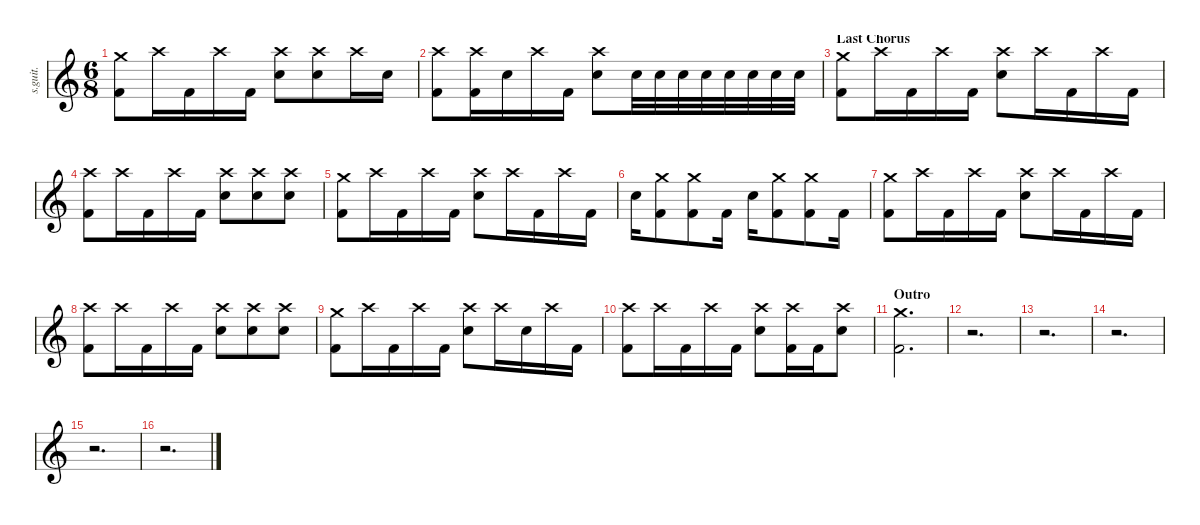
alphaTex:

\defaultSystemsLayout 4
\hideDynamics
\bracketExtendMode nobrackets
\track ("Shannon (Drums)" "s.guit.") {instrument percussion}
\staff {score}
\articulation defaults
\ts (6 8)
\tempo (94 hide)
\clef g2
\ks c
("Crash medium (hit)" "Kick (hit) 2").8{lyrics (0 "") lyrics (1 "") lyrics (2 "") lyrics (3 "") lyrics (4 "") dy f} "Crash high (hit)".16{lyrics (0 "") lyrics (1 "") lyrics (2 "") lyrics (3 "") lyrics (4 "")} "Kick (hit) 2".16{lyrics (0 "") lyrics (1 "") lyrics (2 "") lyrics (3 "") lyrics (4 "")} "Crash high (hit)".16{lyrics (0 "") lyrics (1 "") lyrics (2 "") lyrics (3 "") lyrics (4 "")} "Kick (hit) 2".16{lyrics (0 "") lyrics (1 "") lyrics (2 "") lyrics (3 "") lyrics (4 "")} ("Crash high (hit)" "Electric Snare (hit)").8{lyrics (0 "") lyrics (1 "") lyrics (2 "") lyrics (3 "") lyrics (4 "")} ("Crash high (hit)" "Electric Snare (hit)").8{lyrics (0 "") lyrics (1 "") lyrics (2 "") lyrics (3 "") lyrics (4 "")} "Crash high (hit)".16{lyrics (0 "") lyrics (1 "") lyrics (2 "") lyrics (3 "") lyrics (4 "")} "Electric Snare (hit)".16{lyrics (0 "") lyrics (1 "") lyrics (2 "") lyrics (3 "") lyrics (4 "")} |
("Crash high (hit)" "Kick (hit) 2").8{lyrics (0 "") lyrics (1 "") lyrics (2 "") lyrics (3 "") lyrics (4 "")} ("Crash high (hit)" "Kick (hit) 2").16{lyrics (0 "") lyrics (1 "") lyrics (2 "") lyrics (3 "") lyrics (4 "")} "Electric Snare (hit)".16{lyrics (0 "") lyrics (1 "") lyrics (2 "") lyrics (3 "") lyrics (4 "")} "Crash high (hit)".16{lyrics (0 "") lyrics (1 "") lyrics (2 "") lyrics (3 "") lyrics (4 "")} "Kick (hit) 2".16{lyrics (0 "") lyrics (1 "") lyrics (2 "") lyrics (3 "") lyrics (4 "")} ("Crash high (hit)" "Electric Snare (hit)").8{lyrics (0 "") lyrics (1 "") lyrics (2 "") lyrics (3 "") lyrics (4 "")} "Electric Snare (hit)".32{lyrics (0 "") lyrics (1 "") lyrics (2 "") lyrics (3 "") lyrics (4 "")} "Electric Snare (hit)".32{lyrics (0 "") lyrics (1 "") lyrics (2 "") lyrics (3 "") lyrics (4 "")} "Electric Snare (hit)".32{lyrics (0 "") lyrics (1 "") lyrics (2 "") lyrics (3 "") lyrics (4 "")} "Electric Snare (hit)".32{lyrics (0 "") lyrics (1 "") lyrics (2 "") lyrics (3 "") lyrics (4 "")} "Electric Snare (hit)".32{lyrics (0 "") lyrics (1 "") lyrics (2 "") lyrics (3 "") lyrics (4 "")} "Electric Snare (hit)".32{lyrics (0 "") lyrics (1 "") lyrics (2 "") lyrics (3 "") lyrics (4 "")} "Electric Snare (hit)".32{lyrics (0 "") lyrics (1 "") lyrics (2 "") lyrics (3 "") lyrics (4 "")} "Electric Snare (hit)".32{lyrics (0 "") lyrics (1 "") lyrics (2 "") lyrics (3 "") lyrics (4 "")} |
\section ("" "Last Chorus")
("Crash medium (hit)" "Kick (hit) 2").8{lyrics (0 "") lyrics (1 "") lyrics (2 "") lyrics (3 "") lyrics (4 "")} "Crash high (hit)".16{lyrics (0 "") lyrics (1 "") lyrics (2 "") lyrics (3 "") lyrics (4 "")} "Kick (hit) 2".16{lyrics (0 "") lyrics (1 "") lyrics (2 "") lyrics (3 "") lyrics (4 "")} "Crash high (hit)".16{lyrics (0 "") lyrics (1 "") lyrics (2 "") lyrics (3 "") lyrics (4 "")} "Kick (hit) 2".16{lyrics (0 "") lyrics (1 "") lyrics (2 "") lyrics (3 "") lyrics (4 "")} ("Crash high (hit)" "Electric Snare (hit)").8{lyrics (0 "") lyrics (1 "") lyrics (2 "") lyrics (3 "") lyrics (4 "")} "Crash high (hit)".16{lyrics (0 "") lyrics (1 "") lyrics (2 "") lyrics (3 "") lyrics (4 "")} "Kick (hit) 2".16{lyrics (0 "") lyrics (1 "") lyrics (2 "") lyrics (3 "") lyrics (4 "")} "Crash high (hit)".16{lyrics (0 "") lyrics (1 "") lyrics (2 "") lyrics (3 "") lyrics (4 "")} "Kick (hit) 2".16{lyrics (0 "") lyrics (1 "") lyrics (2 "") lyrics (3 "") lyrics (4 "")} |
("Crash high (hit)" "Kick (hit) 2").8{lyrics (0 "") lyrics (1 "") lyrics (2 "") lyrics (3 "") lyrics (4 "")} "Crash high (hit)".16{lyrics (0 "") lyrics (1 "") lyrics (2 "") lyrics (3 "") lyrics (4 "")} "Kick (hit) 2".16{lyrics (0 "") lyrics (1 "") lyrics (2 "") lyrics (3 "") lyrics (4 "")} "Crash high (hit)".16{lyrics (0 "") lyrics (1 "") lyrics (2 "") lyrics (3 "") lyrics (4 "")} "Kick (hit) 2".16{lyrics (0 "") lyrics (1 "") lyrics (2 "") lyrics (3 "") lyrics (4 "")} ("Crash high (hit)" "Electric Snare (hit)").8{lyrics (0 "") lyrics (1 "") lyrics (2 "") lyrics (3 "") lyrics (4 "")} ("Crash high (hit)" "Electric Snare (hit)").8{lyrics (0 "") lyrics (1 "") lyrics (2 "") lyrics (3 "") lyrics (4 "")} ("Crash high (hit)" "Electric Snare (hit)").8{lyrics (0 "") lyrics (1 "") lyrics (2 "") lyrics (3 "") lyrics (4 "")} |
("Crash medium (hit)" "Kick (hit) 2").8{lyrics (0 "") lyrics (1 "") lyrics (2 "") lyrics (3 "") lyrics (4 "")} "Crash high (hit)".16{lyrics (0 "") lyrics (1 "") lyrics (2 "") lyrics (3 "") lyrics (4 "")} "Kick (hit) 2".16{lyrics (0 "") lyrics (1 "") lyrics (2 "") lyrics (3 "") lyrics (4 "")} "Crash high (hit)".16{lyrics (0 "") lyrics (1 "") lyrics (2 "") lyrics (3 "") lyrics (4 "")} "Kick (hit) 2".16{lyrics (0 "") lyrics (1 "") lyrics (2 "") lyrics (3 "") lyrics (4 "")} ("Crash high (hit)" "Electric Snare (hit)").8{lyrics (0 "") lyrics (1 "") lyrics (2 "") lyrics (3 "") lyrics (4 "")} "Crash high (hit)".16{lyrics (0 "") lyrics (1 "") lyrics (2 "") lyrics (3 "") lyrics (4 "")} "Kick (hit) 2".16{lyrics (0 "") lyrics (1 "") lyrics (2 "") lyrics (3 "") lyrics (4 "")} "Crash high (hit)".16{lyrics (0 "") lyrics (1 "") lyrics (2 "") lyrics (3 "") lyrics (4 "")} "Kick (hit) 2".16{lyrics (0 "") lyrics (1 "") lyrics (2 "") lyrics (3 "") lyrics (4 "")} |
"Electric Snare (hit)".16{lyrics (0 "") lyrics (1 "") lyrics (2 "") lyrics (3 "") lyrics (4 "")} ("Crash medium (hit)" "Kick (hit) 2").8{lyrics (0 "") lyrics (1 "") lyrics (2 "") lyrics (3 "") lyrics (4 "")} ("Crash medium (hit)" "Kick (hit) 2").8{lyrics (0 "") lyrics (1 "") lyrics (2 "") lyrics (3 "") lyrics (4 "")} "Kick (hit) 2".16{lyrics (0 "") lyrics (1 "") lyrics (2 "") lyrics (3 "") lyrics (4 "")} "Electric Snare (hit)".16{lyrics (0 "") lyrics (1 "") lyrics (2 "") lyrics (3 "") lyrics (4 "")} ("Crash medium (hit)" "Kick (hit) 2").8{lyrics (0 "") lyrics (1 "") lyrics (2 "") lyrics (3 "") lyrics (4 "")} ("Crash medium (hit)" "Kick (hit) 2").8{lyrics (0 "") lyrics (1 "") lyrics (2 "") lyrics (3 "") lyrics (4 "")} "Kick (hit) 2".16{lyrics (0 "") lyrics (1 "") lyrics (2 "") lyrics (3 "") lyrics (4 "")} |
("Crash medium (hit)" "Kick (hit) 2").8{lyrics (0 "") lyrics (1 "") lyrics (2 "") lyrics (3 "") lyrics (4 "")} "Crash high (hit)".16{lyrics (0 "") lyrics (1 "") lyrics (2 "") lyrics (3 "") lyrics (4 "")} "Kick (hit) 2".16{lyrics (0 "") lyrics (1 "") lyrics (2 "") lyrics (3 "") lyrics (4 "")} "Crash high (hit)".16{lyrics (0 "") lyrics (1 "") lyrics (2 "") lyrics (3 "") lyrics (4 "")} "Kick (hit) 2".16{lyrics (0 "") lyrics (1 "") lyrics (2 "") lyrics (3 "") lyrics (4 "")} ("Crash high (hit)" "Electric Snare (hit)").8{lyrics (0 "") lyrics (1 "") lyrics (2 "") lyrics (3 "") lyrics (4 "")} "Crash high (hit)".16{lyrics (0 "") lyrics (1 "") lyrics (2 "") lyrics (3 "") lyrics (4 "")} "Kick (hit) 2".16{lyrics (0 "") lyrics (1 "") lyrics (2 "") lyrics (3 "") lyrics (4 "")} "Crash high (hit)".16{lyrics (0 "") lyrics (1 "") lyrics (2 "") lyrics (3 "") lyrics (4 "")} "Kick (hit) 2".16{lyrics (0 "") lyrics (1 "") lyrics (2 "") lyrics (3 "") lyrics (4 "")} |
("Crash high (hit)" "Kick (hit) 2").8{lyrics (0 "") lyrics (1 "") lyrics (2 "") lyrics (3 "") lyrics (4 "")} "Crash high (hit)".16{lyrics (0 "") lyrics (1 "") lyrics (2 "") lyrics (3 "") lyrics (4 "")} "Kick (hit) 2".16{lyrics (0 "") lyrics (1 "") lyrics (2 "") lyrics (3 "") lyrics (4 "")} "Crash high (hit)".16{lyrics (0 "") lyrics (1 "") lyrics (2 "") lyrics (3 "") lyrics (4 "")} "Kick (hit) 2".16{lyrics (0 "") lyrics (1 "") lyrics (2 "") lyrics (3 "") lyrics (4 "")} ("Crash high (hit)" "Electric Snare (hit)").8{lyrics (0 "") lyrics (1 "") lyrics (2 "") lyrics (3 "") lyrics (4 "")} ("Crash high (hit)" "Electric Snare (hit)").8{lyrics (0 "") lyrics (1 "") lyrics (2 "") lyrics (3 "") lyrics (4 "")} ("Crash high (hit)" "Electric Snare (hit)").8{lyrics (0 "") lyrics (1 "") lyrics (2 "") lyrics (3 "") lyrics (4 "")} |
("Crash medium (hit)" "Kick (hit) 2").8{lyrics (0 "") lyrics (1 "") lyrics (2 "") lyrics (3 "") lyrics (4 "")} "Crash high (hit)".16{lyrics (0 "") lyrics (1 "") lyrics (2 "") lyrics (3 "") lyrics (4 "")} "Kick (hit) 2".16{lyrics (0 "") lyrics (1 "") lyrics (2 "") lyrics (3 "") lyrics (4 "")} "Crash high (hit)".16{lyrics (0 "") lyrics (1 "") lyrics (2 "") lyrics (3 "") lyrics (4 "")} "Kick (hit) 2".16{lyrics (0 "") lyrics (1 "") lyrics (2 "") lyrics (3 "") lyrics (4 "")} ("Crash high (hit)" "Electric Snare (hit)").8{lyrics (0 "") lyrics (1 "") lyrics (2 "") lyrics (3 "") lyrics (4 "")} "Crash high (hit)".16{lyrics (0 "") lyrics (1 "") lyrics (2 "") lyrics (3 "") lyrics (4 "")} "Electric Snare (hit)".16{lyrics (0 "") lyrics (1 "") lyrics (2 "") lyrics (3 "") lyrics (4 "")} "Crash high (hit)".16{lyrics (0 "") lyrics (1 "") lyrics (2 "") lyrics (3 "") lyrics (4 "")} "Kick (hit) 2".16{lyrics (0 "") lyrics (1 "") lyrics (2 "") lyrics (3 "") lyrics (4 "")} |
("Crash high (hit)" "Kick (hit) 2").8{lyrics (0 "") lyrics (1 "") lyrics (2 "") lyrics (3 "") lyrics (4 "")} "Crash high (hit)".16{lyrics (0 "") lyrics (1 "") lyrics (2 "") lyrics (3 "") lyrics (4 "")} "Kick (hit) 2".16{lyrics (0 "") lyrics (1 "") lyrics (2 "") lyrics (3 "") lyrics (4 "")} "Crash high (hit)".16{lyrics (0 "") lyrics (1 "") lyrics (2 "") lyrics (3 "") lyrics (4 "")} "Kick (hit) 2".16{lyrics (0 "") lyrics (1 "") lyrics (2 "") lyrics (3 "") lyrics (4 "")} ("Crash high (hit)" "Electric Snare (hit)").8{lyrics (0 "") lyrics (1 "") lyrics (2 "") lyrics (3 "") lyrics (4 "")} ("Crash high (hit)" "Kick (hit) 2").16{lyrics (0 "") lyrics (1 "") lyrics (2 "") lyrics (3 "") lyrics (4 "")} "Kick (hit) 2".16{lyrics (0 "") lyrics (1 "") lyrics (2 "") lyrics (3 "") lyrics (4 "")} ("Crash high (hit)" "Electric Snare (hit)").8{lyrics (0 "") lyrics (1 "") lyrics (2 "") lyrics (3 "") lyrics (4 "")} |
\section ("" "Outro")
("Crash medium (hit)" "Kick (hit) 2").2{d lyrics (0 "") lyrics (1 "") lyrics (2 "") lyrics (3 "") lyrics (4 "")} |
r.2{d} |
r.2{d} |
r.2{d} |
r.2{d} |
r.2{d}
